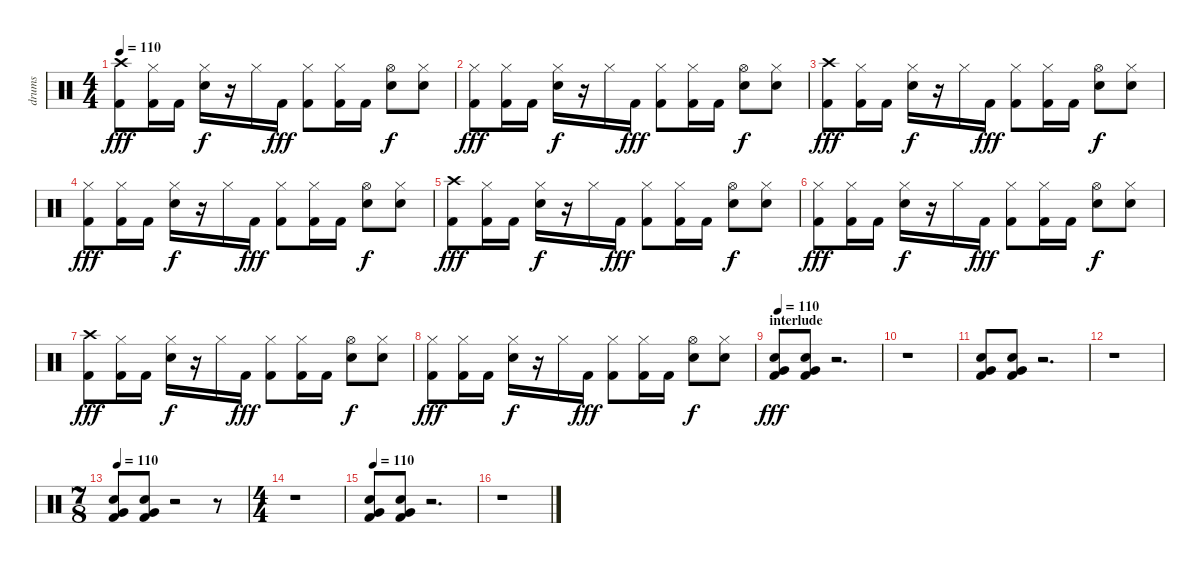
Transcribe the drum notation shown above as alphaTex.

\track ("drums" "drums") {instrument percussion}
\staff {score}
\articulation defaults
\ts (4 4)
\tempo 110
\clef neutral
\ks c
("Crash high (hit)" "Kick (hit) 2").8{dy fff} ("Hi-Hat (closed)" "Kick (hit) 2").16 "Kick (hit) 2".16 ("Hi-Hat (closed)" "Snare (hit) 2").16{dy f} r.16 "Hi-Hat (closed)".16 "Kick (hit) 2".16{dy fff} ("Hi-Hat (closed)" "Kick (hit) 2").8 ("Hi-Hat (closed)" "Kick (hit) 2").16 "Kick (hit) 2".16 ("Hi-Hat (open)" "Snare (hit) 2").8{dy f} ("Hi-Hat (closed)" "Snare (hit) 2").8 |
("Hi-Hat (closed)" "Kick (hit) 2").8{dy fff} ("Hi-Hat (closed)" "Kick (hit) 2").16 "Kick (hit) 2".16 ("Hi-Hat (closed)" "Snare (hit) 2").16{dy f} r.16 "Hi-Hat (closed)".16 "Kick (hit) 2".16{dy fff} ("Hi-Hat (closed)" "Kick (hit) 2").8 ("Hi-Hat (closed)" "Kick (hit) 2").16 "Kick (hit) 2".16 ("Hi-Hat (open)" "Snare (hit) 2").8{dy f} ("Hi-Hat (closed)" "Snare (hit) 2").8 |
("Crash high (hit)" "Kick (hit) 2").8{dy fff} ("Hi-Hat (closed)" "Kick (hit) 2").16 "Kick (hit) 2".16 ("Hi-Hat (closed)" "Snare (hit) 2").16{dy f} r.16 "Hi-Hat (closed)".16 "Kick (hit) 2".16{dy fff} ("Hi-Hat (closed)" "Kick (hit) 2").8 ("Hi-Hat (closed)" "Kick (hit) 2").16 "Kick (hit) 2".16 ("Hi-Hat (open)" "Snare (hit) 2").8{dy f} ("Hi-Hat (closed)" "Snare (hit) 2").8 |
("Hi-Hat (closed)" "Kick (hit) 2").8{dy fff} ("Hi-Hat (closed)" "Kick (hit) 2").16 "Kick (hit) 2".16 ("Hi-Hat (closed)" "Snare (hit) 2").16{dy f} r.16 "Hi-Hat (closed)".16 "Kick (hit) 2".16{dy fff} ("Hi-Hat (closed)" "Kick (hit) 2").8 ("Hi-Hat (closed)" "Kick (hit) 2").16 "Kick (hit) 2".16 ("Hi-Hat (open)" "Snare (hit) 2").8{dy f} ("Hi-Hat (closed)" "Snare (hit) 2").8 |
("Crash high (hit)" "Kick (hit) 2").8{dy fff} ("Hi-Hat (closed)" "Kick (hit) 2").16 "Kick (hit) 2".16 ("Hi-Hat (closed)" "Snare (hit) 2").16{dy f} r.16 "Hi-Hat (closed)".16 "Kick (hit) 2".16{dy fff} ("Hi-Hat (closed)" "Kick (hit) 2").8 ("Hi-Hat (closed)" "Kick (hit) 2").16 "Kick (hit) 2".16 ("Hi-Hat (open)" "Snare (hit) 2").8{dy f} ("Hi-Hat (closed)" "Snare (hit) 2").8 |
("Hi-Hat (closed)" "Kick (hit) 2").8{dy fff} ("Hi-Hat (closed)" "Kick (hit) 2").16 "Kick (hit) 2".16 ("Hi-Hat (closed)" "Snare (hit) 2").16{dy f} r.16 "Hi-Hat (closed)".16 "Kick (hit) 2".16{dy fff} ("Hi-Hat (closed)" "Kick (hit) 2").8 ("Hi-Hat (closed)" "Kick (hit) 2").16 "Kick (hit) 2".16 ("Hi-Hat (open)" "Snare (hit) 2").8{dy f} ("Hi-Hat (closed)" "Snare (hit) 2").8 |
("Crash high (hit)" "Kick (hit) 2").8{dy fff} ("Hi-Hat (closed)" "Kick (hit) 2").16 "Kick (hit) 2".16 ("Hi-Hat (closed)" "Snare (hit) 2").16{dy f} r.16 "Hi-Hat (closed)".16 "Kick (hit) 2".16{dy fff} ("Hi-Hat (closed)" "Kick (hit) 2").8 ("Hi-Hat (closed)" "Kick (hit) 2").16 "Kick (hit) 2".16 ("Hi-Hat (open)" "Snare (hit) 2").8{dy f} ("Hi-Hat (closed)" "Snare (hit) 2").8 |
("Hi-Hat (closed)" "Kick (hit) 2").8{dy fff} ("Hi-Hat (closed)" "Kick (hit) 2").16 "Kick (hit) 2".16 ("Hi-Hat (closed)" "Snare (hit) 2").16{dy f} r.16 "Hi-Hat (closed)".16 "Kick (hit) 2".16{dy fff} ("Hi-Hat (closed)" "Kick (hit) 2").8 ("Hi-Hat (closed)" "Kick (hit) 2").16 "Kick (hit) 2".16 ("Hi-Hat (open)" "Snare (hit) 2").8{dy f} ("Hi-Hat (closed)" "Snare (hit) 2").8 |
\section ("" "interlude")
\tempo 110
("Very Low Tom (hit)" "Snare (hit) 2" "Kick (hit) 2").8{dy fff} ("Very Low Tom (hit)" "Snare (hit) 2" "Kick (hit) 2").8 r.2{d} |
r.1 |
("Very Low Tom (hit)" "Snare (hit) 2" "Kick (hit) 2").8 ("Very Low Tom (hit)" "Snare (hit) 2" "Kick (hit) 2").8 r.2{d} |
r.1 |
\ts (7 8)
\tempo 110
("Very Low Tom (hit)" "Snare (hit) 2" "Kick (hit) 2").8 ("Very Low Tom (hit)" "Snare (hit) 2" "Kick (hit) 2").8 r.2 r.8 |
\ts (4 4)
r.1 |
\tempo 110
("Very Low Tom (hit)" "Snare (hit) 2" "Kick (hit) 2").8 ("Very Low Tom (hit)" "Snare (hit) 2" "Kick (hit) 2").8 r.2{d} |
r.1
